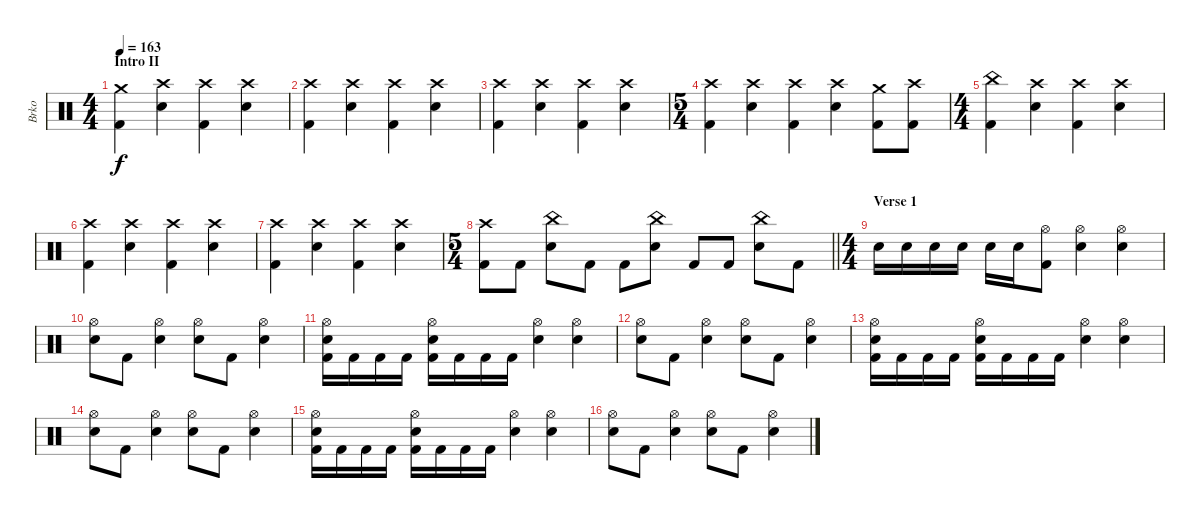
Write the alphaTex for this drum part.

\track ("Brko" "Brko") {instrument percussion}
\staff {score}
\articulation defaults
\ts (4 4)
\section ("" "Intro II")
\tempo 163
\clef neutral
\ks c
("Crash medium (hit)" "Kick (hit) 2").4{dy f} ("Crash high (hit)" "Electric Snare (hit)").4 ("Crash high (hit)" "Kick (hit) 2").4 ("Crash high (hit)" "Electric Snare (hit)").4 |
("Crash high (hit)" "Kick (hit) 2").4 ("Crash high (hit)" "Electric Snare (hit)").4 ("Crash high (hit)" "Kick (hit) 2").4 ("Crash high (hit)" "Electric Snare (hit)").4 |
("Crash high (hit)" "Kick (hit) 2").4 ("Crash high (hit)" "Electric Snare (hit)").4 ("Crash high (hit)" "Kick (hit) 2").4 ("Crash high (hit)" "Electric Snare (hit)").4 |
\ts (5 4)
("Crash high (hit)" "Kick (hit) 2").4 ("Crash high (hit)" "Electric Snare (hit)").4 ("Crash high (hit)" "Kick (hit) 2").4 ("Crash high (hit)" "Electric Snare (hit)").4 ("Crash medium (hit)" "Kick (hit) 2").8 ("Crash high (hit)" "Kick (hit) 2").8 |
\ts (4 4)
("China (hit)" "Kick (hit) 2").4 ("Crash high (hit)" "Electric Snare (hit)").4 ("Crash high (hit)" "Kick (hit) 2").4 ("Crash high (hit)" "Electric Snare (hit)").4 |
("Crash high (hit)" "Kick (hit) 2").4 ("Crash high (hit)" "Electric Snare (hit)").4 ("Crash high (hit)" "Kick (hit) 2").4 ("Crash high (hit)" "Electric Snare (hit)").4 |
("Crash high (hit)" "Kick (hit) 2").4 ("Crash high (hit)" "Electric Snare (hit)").4 ("Crash high (hit)" "Kick (hit) 2").4 ("Crash high (hit)" "Electric Snare (hit)").4 |
\ts (5 4)
\barLineRight lightlight
("Crash high (hit)" "Kick (hit) 2").8 "Kick (hit) 2".8 ("China (hit)" "Electric Snare (hit)").8 "Kick (hit) 2".8 "Kick (hit) 2".8 ("China (hit)" "Electric Snare (hit)").8 "Kick (hit) 2".8 "Kick (hit) 2".8 ("China (hit)" "Electric Snare (hit)").8 "Kick (hit) 2".8 |
\ts (4 4)
\section ("" "Verse 1")
"Electric Snare (hit)".16 "Electric Snare (hit)".16 "Electric Snare (hit)".16 "Electric Snare (hit)".16 "Electric Snare (hit)".16 "Electric Snare (hit)".16 ("Hi-Hat (open)" "Kick (hit) 2").8 ("Hi-Hat (open)" "Electric Snare (hit)").4 ("Hi-Hat (open)" "Electric Snare (hit)").4 |
("Hi-Hat (open)" "Electric Snare (hit)").8 "Kick (hit) 2".8 ("Hi-Hat (open)" "Electric Snare (hit)").4 ("Hi-Hat (open)" "Electric Snare (hit)").8 "Kick (hit) 2".8 ("Hi-Hat (open)" "Electric Snare (hit)").4 |
("Hi-Hat (open)" "Electric Snare (hit)" "Kick (hit) 2").16 "Kick (hit) 2".16 "Kick (hit) 2".16 "Kick (hit) 2".16 ("Hi-Hat (open)" "Electric Snare (hit)" "Kick (hit) 2").16 "Kick (hit) 2".16 "Kick (hit) 2".16 "Kick (hit) 2".16 ("Hi-Hat (open)" "Electric Snare (hit)").4 ("Hi-Hat (open)" "Electric Snare (hit)").4 |
("Hi-Hat (open)" "Electric Snare (hit)").8 "Kick (hit) 2".8 ("Hi-Hat (open)" "Electric Snare (hit)").4 ("Hi-Hat (open)" "Electric Snare (hit)").8 "Kick (hit) 2".8 ("Hi-Hat (open)" "Electric Snare (hit)").4 |
("Hi-Hat (open)" "Electric Snare (hit)" "Kick (hit) 2").16 "Kick (hit) 2".16 "Kick (hit) 2".16 "Kick (hit) 2".16 ("Hi-Hat (open)" "Electric Snare (hit)" "Kick (hit) 2").16 "Kick (hit) 2".16 "Kick (hit) 2".16 "Kick (hit) 2".16 ("Hi-Hat (open)" "Electric Snare (hit)").4 ("Hi-Hat (open)" "Electric Snare (hit)").4 |
("Hi-Hat (open)" "Electric Snare (hit)").8 "Kick (hit) 2".8 ("Hi-Hat (open)" "Electric Snare (hit)").4 ("Hi-Hat (open)" "Electric Snare (hit)").8 "Kick (hit) 2".8 ("Hi-Hat (open)" "Electric Snare (hit)").4 |
("Hi-Hat (open)" "Electric Snare (hit)" "Kick (hit) 2").16 "Kick (hit) 2".16 "Kick (hit) 2".16 "Kick (hit) 2".16 ("Hi-Hat (open)" "Electric Snare (hit)" "Kick (hit) 2").16 "Kick (hit) 2".16 "Kick (hit) 2".16 "Kick (hit) 2".16 ("Hi-Hat (open)" "Electric Snare (hit)").4 ("Hi-Hat (open)" "Electric Snare (hit)").4 |
("Hi-Hat (open)" "Electric Snare (hit)").8 "Kick (hit) 2".8 ("Hi-Hat (open)" "Electric Snare (hit)").4 ("Hi-Hat (open)" "Electric Snare (hit)").8 "Kick (hit) 2".8 ("Hi-Hat (open)" "Electric Snare (hit)").4
